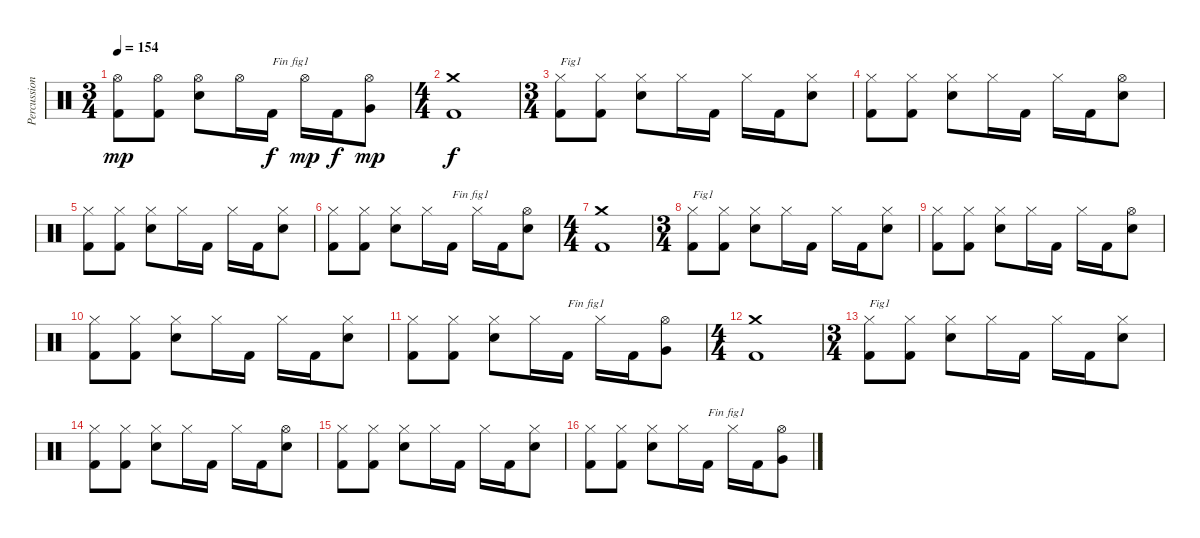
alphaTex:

\track ("Percussions" "Percussion") {instrument percussion}
\staff {score}
\articulation defaults
\ts (3 4)
\tempo 154
\clef neutral
\ks c
("Kick (hit) 2" "Hi-Hat (open)").8{dy mp} ("Kick (hit) 2" "Hi-Hat (open)").8 ("Electric Snare (hit)" "Hi-Hat (open)").8 "Hi-Hat (open)".16 "Kick (hit) 2".16{txt "Fin fig1" dy f} "Hi-Hat (open)".16{dy mp} "Kick (hit) 2".16{dy f} ("Very Low Tom (hit)" "Hi-Hat (open)").8{dy mp} |
\ts (4 4)
("Kick (hit) 2" "Crash medium (hit)").1{dy f} |
\ts (3 4)
("Kick (hit) 2" "Hi-Hat (closed)").8{txt "Fig1"} ("Kick (hit) 2" "Hi-Hat (closed)").8 ("Electric Snare (hit)" "Hi-Hat (closed)").8 "Hi-Hat (closed)".16 "Kick (hit) 2".16 "Hi-Hat (closed)".16 "Kick (hit) 2".16 ("Electric Snare (hit)" "Hi-Hat (closed)").8 |
("Kick (hit) 2" "Hi-Hat (closed)").8 ("Kick (hit) 2" "Hi-Hat (closed)").8 ("Electric Snare (hit)" "Hi-Hat (closed)").8 "Hi-Hat (closed)".16 "Kick (hit) 2".16 "Hi-Hat (closed)".16 "Kick (hit) 2".16 ("Electric Snare (hit)" "Hi-Hat (open)").8 |
("Kick (hit) 2" "Hi-Hat (closed)").8 ("Kick (hit) 2" "Hi-Hat (closed)").8 ("Electric Snare (hit)" "Hi-Hat (closed)").8 "Hi-Hat (closed)".16 "Kick (hit) 2".16 "Hi-Hat (closed)".16 "Kick (hit) 2".16 ("Electric Snare (hit)" "Hi-Hat (closed)").8 |
("Kick (hit) 2" "Hi-Hat (closed)").8 ("Kick (hit) 2" "Hi-Hat (closed)").8 ("Electric Snare (hit)" "Hi-Hat (closed)").8 "Hi-Hat (closed)".16 "Kick (hit) 2".16{txt "Fin fig1"} "Hi-Hat (closed)".16 "Kick (hit) 2".16 ("Electric Snare (hit)" "Hi-Hat (open)").8 |
\ts (4 4)
("Kick (hit) 2" "Crash medium (hit)").1 |
\ts (3 4)
("Kick (hit) 2" "Hi-Hat (closed)").8{txt "Fig1"} ("Kick (hit) 2" "Hi-Hat (closed)").8 ("Electric Snare (hit)" "Hi-Hat (closed)").8 "Hi-Hat (closed)".16 "Kick (hit) 2".16 "Hi-Hat (closed)".16 "Kick (hit) 2".16 ("Electric Snare (hit)" "Hi-Hat (closed)").8 |
("Kick (hit) 2" "Hi-Hat (closed)").8 ("Kick (hit) 2" "Hi-Hat (closed)").8 ("Electric Snare (hit)" "Hi-Hat (closed)").8 "Hi-Hat (closed)".16 "Kick (hit) 2".16 "Hi-Hat (closed)".16 "Kick (hit) 2".16 ("Electric Snare (hit)" "Hi-Hat (open)").8 |
("Kick (hit) 2" "Hi-Hat (closed)").8 ("Kick (hit) 2" "Hi-Hat (closed)").8 ("Electric Snare (hit)" "Hi-Hat (closed)").8 "Hi-Hat (closed)".16 "Kick (hit) 2".16 "Hi-Hat (closed)".16 "Kick (hit) 2".16 ("Electric Snare (hit)" "Hi-Hat (closed)").8 |
("Kick (hit) 2" "Hi-Hat (closed)").8 ("Kick (hit) 2" "Hi-Hat (closed)").8 ("Electric Snare (hit)" "Hi-Hat (closed)").8 "Hi-Hat (closed)".16 "Kick (hit) 2".16{txt "Fin fig1"} "Hi-Hat (closed)".16 "Kick (hit) 2".16 ("Very Low Tom (hit)" "Hi-Hat (open)").8 |
\ts (4 4)
("Kick (hit) 2" "Crash medium (hit)").1 |
\ts (3 4)
("Kick (hit) 2" "Hi-Hat (closed)").8{txt "Fig1"} ("Kick (hit) 2" "Hi-Hat (closed)").8 ("Electric Snare (hit)" "Hi-Hat (closed)").8 "Hi-Hat (closed)".16 "Kick (hit) 2".16 "Hi-Hat (closed)".16 "Kick (hit) 2".16 ("Electric Snare (hit)" "Hi-Hat (closed)").8 |
("Kick (hit) 2" "Hi-Hat (closed)").8 ("Kick (hit) 2" "Hi-Hat (closed)").8 ("Electric Snare (hit)" "Hi-Hat (closed)").8 "Hi-Hat (closed)".16 "Kick (hit) 2".16 "Hi-Hat (closed)".16 "Kick (hit) 2".16 ("Electric Snare (hit)" "Hi-Hat (open)").8 |
("Kick (hit) 2" "Hi-Hat (closed)").8 ("Kick (hit) 2" "Hi-Hat (closed)").8 ("Electric Snare (hit)" "Hi-Hat (closed)").8 "Hi-Hat (closed)".16 "Kick (hit) 2".16 "Hi-Hat (closed)".16 "Kick (hit) 2".16 ("Electric Snare (hit)" "Hi-Hat (closed)").8 |
("Kick (hit) 2" "Hi-Hat (closed)").8 ("Kick (hit) 2" "Hi-Hat (closed)").8 ("Electric Snare (hit)" "Hi-Hat (closed)").8 "Hi-Hat (closed)".16 "Kick (hit) 2".16{txt "Fin fig1"} "Hi-Hat (closed)".16 "Kick (hit) 2".16 ("Very Low Tom (hit)" "Hi-Hat (open)").8
